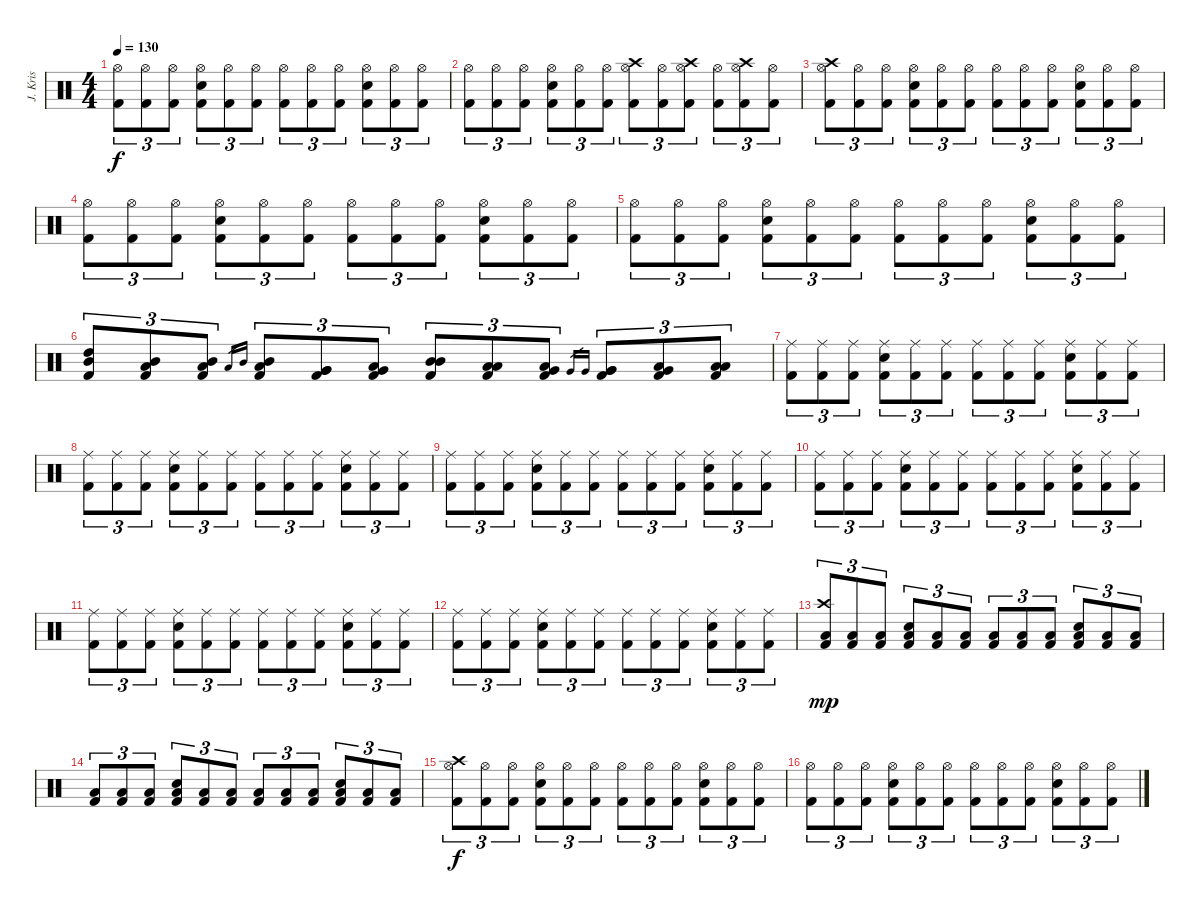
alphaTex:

\track ("   J. Kristensson (drums)" "   J. Kris") {instrument percussion}
\staff {score}
\articulation defaults
\ts (4 4)
\tempo 130
\clef neutral
\ks c
("Hi-Hat (open)" "Kick (hit) 2").8{tu (3 2) dy f} ("Hi-Hat (open)" "Kick (hit) 2").8{tu (3 2)} ("Hi-Hat (open)" "Kick (hit) 2").8{tu (3 2)} ("Hi-Hat (open)" "Electric Snare (hit)" "Kick (hit) 2").8{tu (3 2)} ("Hi-Hat (open)" "Kick (hit) 2").8{tu (3 2)} ("Hi-Hat (open)" "Kick (hit) 2").8{tu (3 2)} ("Hi-Hat (open)" "Kick (hit) 2").8{tu (3 2)} ("Hi-Hat (open)" "Kick (hit) 2").8{tu (3 2)} ("Hi-Hat (open)" "Kick (hit) 2").8{tu (3 2)} ("Hi-Hat (open)" "Electric Snare (hit)" "Kick (hit) 2").8{tu (3 2)} ("Hi-Hat (open)" "Kick (hit) 2").8{tu (3 2)} ("Hi-Hat (open)" "Kick (hit) 2").8{tu (3 2)} |
("Hi-Hat (open)" "Kick (hit) 2").8{tu (3 2)} ("Hi-Hat (open)" "Kick (hit) 2").8{tu (3 2)} ("Hi-Hat (open)" "Kick (hit) 2").8{tu (3 2)} ("Hi-Hat (open)" "Electric Snare (hit)" "Kick (hit) 2").8{tu (3 2)} ("Hi-Hat (open)" "Kick (hit) 2").8{tu (3 2)} ("Hi-Hat (open)" "Kick (hit) 2").8{tu (3 2)} ("Hi-Hat (open)" "Crash high (hit)" "Kick (hit) 2").8{tu (3 2)} ("Hi-Hat (open)" "Kick (hit) 2").8{tu (3 2)} ("Hi-Hat (open)" "Crash high (hit)" "Kick (hit) 2").8{tu (3 2)} ("Hi-Hat (open)" "Kick (hit) 2").8{tu (3 2)} ("Hi-Hat (open)" "Crash high (hit)" "Kick (hit) 2").8{tu (3 2)} ("Hi-Hat (open)" "Kick (hit) 2").8{tu (3 2)} |
("Hi-Hat (open)" "Crash high (hit)" "Kick (hit) 2").8{tu (3 2)} ("Hi-Hat (open)" "Kick (hit) 2").8{tu (3 2)} ("Hi-Hat (open)" "Kick (hit) 2").8{tu (3 2)} ("Hi-Hat (open)" "Electric Snare (hit)" "Kick (hit) 2").8{tu (3 2)} ("Hi-Hat (open)" "Kick (hit) 2").8{tu (3 2)} ("Hi-Hat (open)" "Kick (hit) 2").8{tu (3 2)} ("Hi-Hat (open)" "Kick (hit) 2").8{tu (3 2)} ("Hi-Hat (open)" "Kick (hit) 2").8{tu (3 2)} ("Hi-Hat (open)" "Kick (hit) 2").8{tu (3 2)} ("Hi-Hat (open)" "Electric Snare (hit)" "Kick (hit) 2").8{tu (3 2)} ("Hi-Hat (open)" "Kick (hit) 2").8{tu (3 2)} ("Hi-Hat (open)" "Kick (hit) 2").8{tu (3 2)} |
("Hi-Hat (open)" "Kick (hit) 2").8{tu (3 2)} ("Hi-Hat (open)" "Kick (hit) 2").8{tu (3 2)} ("Hi-Hat (open)" "Kick (hit) 2").8{tu (3 2)} ("Hi-Hat (open)" "Electric Snare (hit)" "Kick (hit) 2").8{tu (3 2)} ("Hi-Hat (open)" "Kick (hit) 2").8{tu (3 2)} ("Hi-Hat (open)" "Kick (hit) 2").8{tu (3 2)} ("Hi-Hat (open)" "Kick (hit) 2").8{tu (3 2)} ("Hi-Hat (open)" "Kick (hit) 2").8{tu (3 2)} ("Hi-Hat (open)" "Kick (hit) 2").8{tu (3 2)} ("Hi-Hat (open)" "Electric Snare (hit)" "Kick (hit) 2").8{tu (3 2)} ("Hi-Hat (open)" "Kick (hit) 2").8{tu (3 2)} ("Hi-Hat (open)" "Kick (hit) 2").8{tu (3 2)} |
("Hi-Hat (open)" "Kick (hit) 2").8{tu (3 2)} ("Hi-Hat (open)" "Kick (hit) 2").8{tu (3 2)} ("Hi-Hat (open)" "Kick (hit) 2").8{tu (3 2)} ("Hi-Hat (open)" "Electric Snare (hit)" "Kick (hit) 2").8{tu (3 2)} ("Hi-Hat (open)" "Kick (hit) 2").8{tu (3 2)} ("Hi-Hat (open)" "Kick (hit) 2").8{tu (3 2)} ("Hi-Hat (open)" "Kick (hit) 2").8{tu (3 2)} ("Hi-Hat (open)" "Kick (hit) 2").8{tu (3 2)} ("Hi-Hat (open)" "Kick (hit) 2").8{tu (3 2)} ("Hi-Hat (open)" "Electric Snare (hit)" "Kick (hit) 2").8{tu (3 2)} ("Hi-Hat (open)" "Kick (hit) 2").8{tu (3 2)} ("Hi-Hat (open)" "Kick (hit) 2").8{tu (3 2)} |
("High Tom (hit)" "Mid Tom (hit)" "Kick (hit) 2").8{tu (3 2)} ("Mid Tom (hit)" "Low Tom (hit)" "Kick (hit) 2").8{tu (3 2)} ("Low Tom (hit)" "Mid Tom (hit)" "Kick (hit) 2").8{tu (3 2)} "Low Tom (hit)".16{gr} "Mid Tom (hit)".16{gr} ("Low Tom (hit)" "Mid Tom (hit)" "Kick (hit) 2").8{tu (3 2)} ("Very Low Tom (hit)" "Very Low Tom (hit)" "Kick (hit) 2").8{tu (3 2)} ("Low Floor Tom (hit)" "Very Low Tom (hit)" "Kick (hit) 2").8{tu (3 2)} ("Mid Tom (hit)" "Mid Tom (hit)" "Kick (hit) 2").8{tu (3 2)} ("Low Tom (hit)" "Low Tom (hit)" "Kick (hit) 2").8{tu (3 2)} ("Very Low Tom (hit)" "Low Tom (hit)" "Kick (hit) 2").8{tu (3 2)} "Very Low Tom (hit)".16{gr} "Very Low Tom (hit)".16{gr} ("Very Low Tom (hit)" "Very Low Tom (hit)" "Kick (hit) 2").8{tu (3 2)} ("Low Floor Tom (hit)" "Very Low Tom (hit)" "Kick (hit) 2").8{tu (3 2)} ("Low Floor Tom (hit)" "Low Floor Tom (hit)" "Kick (hit) 2").8{tu (3 2)} |
("Ride (middle)" "Kick (hit) 2").8{tu (3 2)} ("Ride (middle)" "Kick (hit) 2").8{tu (3 2)} ("Ride (middle)" "Kick (hit) 2").8{tu (3 2)} ("Ride (middle)" "Electric Snare (hit)" "Kick (hit) 2").8{tu (3 2)} ("Ride (middle)" "Kick (hit) 2").8{tu (3 2)} ("Ride (middle)" "Kick (hit) 2").8{tu (3 2)} ("Ride (middle)" "Kick (hit) 2").8{tu (3 2)} ("Ride (middle)" "Kick (hit) 2").8{tu (3 2)} ("Ride (middle)" "Kick (hit) 2").8{tu (3 2)} ("Ride (middle)" "Electric Snare (hit)" "Kick (hit) 2").8{tu (3 2)} ("Ride (middle)" "Kick (hit) 2").8{tu (3 2)} ("Ride (middle)" "Kick (hit) 2").8{tu (3 2)} |
("Ride (middle)" "Kick (hit) 2").8{tu (3 2)} ("Ride (middle)" "Kick (hit) 2").8{tu (3 2)} ("Ride (middle)" "Kick (hit) 2").8{tu (3 2)} ("Ride (middle)" "Electric Snare (hit)" "Kick (hit) 2").8{tu (3 2)} ("Ride (middle)" "Kick (hit) 2").8{tu (3 2)} ("Ride (middle)" "Kick (hit) 2").8{tu (3 2)} ("Ride (middle)" "Kick (hit) 2").8{tu (3 2)} ("Ride (middle)" "Kick (hit) 2").8{tu (3 2)} ("Ride (middle)" "Kick (hit) 2").8{tu (3 2)} ("Ride (middle)" "Electric Snare (hit)" "Kick (hit) 2").8{tu (3 2)} ("Ride (middle)" "Kick (hit) 2").8{tu (3 2)} ("Ride (middle)" "Kick (hit) 2").8{tu (3 2)} |
("Ride (middle)" "Kick (hit) 2").8{tu (3 2)} ("Ride (middle)" "Kick (hit) 2").8{tu (3 2)} ("Ride (middle)" "Kick (hit) 2").8{tu (3 2)} ("Ride (middle)" "Electric Snare (hit)" "Kick (hit) 2").8{tu (3 2)} ("Ride (middle)" "Kick (hit) 2").8{tu (3 2)} ("Ride (middle)" "Kick (hit) 2").8{tu (3 2)} ("Ride (middle)" "Kick (hit) 2").8{tu (3 2)} ("Ride (middle)" "Kick (hit) 2").8{tu (3 2)} ("Ride (middle)" "Kick (hit) 2").8{tu (3 2)} ("Ride (middle)" "Electric Snare (hit)" "Kick (hit) 2").8{tu (3 2)} ("Ride (middle)" "Kick (hit) 2").8{tu (3 2)} ("Ride (middle)" "Kick (hit) 2").8{tu (3 2)} |
("Ride (middle)" "Kick (hit) 2").8{tu (3 2)} ("Ride (middle)" "Kick (hit) 2").8{tu (3 2)} ("Ride (middle)" "Kick (hit) 2").8{tu (3 2)} ("Ride (middle)" "Electric Snare (hit)" "Kick (hit) 2").8{tu (3 2)} ("Ride (middle)" "Kick (hit) 2").8{tu (3 2)} ("Ride (middle)" "Kick (hit) 2").8{tu (3 2)} ("Ride (middle)" "Kick (hit) 2").8{tu (3 2)} ("Ride (middle)" "Kick (hit) 2").8{tu (3 2)} ("Ride (middle)" "Kick (hit) 2").8{tu (3 2)} ("Ride (middle)" "Electric Snare (hit)" "Kick (hit) 2").8{tu (3 2)} ("Ride (middle)" "Kick (hit) 2").8{tu (3 2)} ("Ride (middle)" "Kick (hit) 2").8{tu (3 2)} |
("Ride (middle)" "Kick (hit) 2").8{tu (3 2)} ("Ride (middle)" "Kick (hit) 2").8{tu (3 2)} ("Ride (middle)" "Kick (hit) 2").8{tu (3 2)} ("Ride (middle)" "Electric Snare (hit)" "Kick (hit) 2").8{tu (3 2)} ("Ride (middle)" "Kick (hit) 2").8{tu (3 2)} ("Ride (middle)" "Kick (hit) 2").8{tu (3 2)} ("Ride (middle)" "Kick (hit) 2").8{tu (3 2)} ("Ride (middle)" "Kick (hit) 2").8{tu (3 2)} ("Ride (middle)" "Kick (hit) 2").8{tu (3 2)} ("Ride (middle)" "Electric Snare (hit)" "Kick (hit) 2").8{tu (3 2)} ("Ride (middle)" "Kick (hit) 2").8{tu (3 2)} ("Ride (middle)" "Kick (hit) 2").8{tu (3 2)} |
("Ride (middle)" "Kick (hit) 2").8{tu (3 2)} ("Ride (middle)" "Kick (hit) 2").8{tu (3 2)} ("Ride (middle)" "Kick (hit) 2").8{tu (3 2)} ("Ride (middle)" "Electric Snare (hit)" "Kick (hit) 2").8{tu (3 2)} ("Ride (middle)" "Kick (hit) 2").8{tu (3 2)} ("Ride (middle)" "Kick (hit) 2").8{tu (3 2)} ("Ride (middle)" "Kick (hit) 2").8{tu (3 2)} ("Ride (middle)" "Kick (hit) 2").8{tu (3 2)} ("Ride (middle)" "Kick (hit) 2").8{tu (3 2)} ("Ride (middle)" "Electric Snare (hit)" "Kick (hit) 2").8{tu (3 2)} ("Ride (middle)" "Kick (hit) 2").8{tu (3 2)} ("Ride (middle)" "Kick (hit) 2").8{tu (3 2)} |
("Crash high (hit)" "Low Tom (hit)" "Kick (hit) 2").8{tu (3 2) dy mp} ("Low Tom (hit)" "Kick (hit) 2").8{tu (3 2)} ("Low Tom (hit)" "Kick (hit) 2").8{tu (3 2)} ("Low Tom (hit)" "Electric Snare (hit)" "Kick (hit) 2").8{tu (3 2)} ("Low Tom (hit)" "Kick (hit) 2").8{tu (3 2)} ("Low Tom (hit)" "Kick (hit) 2").8{tu (3 2)} ("Low Tom (hit)" "Kick (hit) 2").8{tu (3 2)} ("Low Tom (hit)" "Kick (hit) 2").8{tu (3 2)} ("Low Tom (hit)" "Kick (hit) 2").8{tu (3 2)} ("Low Tom (hit)" "Electric Snare (hit)" "Kick (hit) 2").8{tu (3 2)} ("Low Tom (hit)" "Kick (hit) 2").8{tu (3 2)} ("Low Tom (hit)" "Kick (hit) 2").8{tu (3 2)} |
("Low Tom (hit)" "Kick (hit) 2").8{tu (3 2)} ("Low Tom (hit)" "Kick (hit) 2").8{tu (3 2)} ("Low Tom (hit)" "Kick (hit) 2").8{tu (3 2)} ("Low Tom (hit)" "Electric Snare (hit)" "Kick (hit) 2").8{tu (3 2)} ("Low Tom (hit)" "Kick (hit) 2").8{tu (3 2)} ("Low Tom (hit)" "Kick (hit) 2").8{tu (3 2)} ("Low Tom (hit)" "Kick (hit) 2").8{tu (3 2)} ("Low Tom (hit)" "Kick (hit) 2").8{tu (3 2)} ("Low Tom (hit)" "Kick (hit) 2").8{tu (3 2)} ("Low Tom (hit)" "Electric Snare (hit)" "Kick (hit) 2").8{tu (3 2)} ("Low Tom (hit)" "Kick (hit) 2").8{tu (3 2)} ("Low Tom (hit)" "Kick (hit) 2").8{tu (3 2)} |
("Hi-Hat (open)" "Crash high (hit)" "Kick (hit) 2").8{tu (3 2) dy f} ("Hi-Hat (open)" "Kick (hit) 2").8{tu (3 2)} ("Hi-Hat (open)" "Kick (hit) 2").8{tu (3 2)} ("Hi-Hat (open)" "Electric Snare (hit)" "Kick (hit) 2").8{tu (3 2)} ("Hi-Hat (open)" "Kick (hit) 2").8{tu (3 2)} ("Hi-Hat (open)" "Kick (hit) 2").8{tu (3 2)} ("Hi-Hat (open)" "Kick (hit) 2").8{tu (3 2)} ("Hi-Hat (open)" "Kick (hit) 2").8{tu (3 2)} ("Hi-Hat (open)" "Kick (hit) 2").8{tu (3 2)} ("Hi-Hat (open)" "Electric Snare (hit)" "Kick (hit) 2").8{tu (3 2)} ("Hi-Hat (open)" "Kick (hit) 2").8{tu (3 2)} ("Hi-Hat (open)" "Kick (hit) 2").8{tu (3 2)} |
("Hi-Hat (open)" "Kick (hit) 2").8{tu (3 2)} ("Hi-Hat (open)" "Kick (hit) 2").8{tu (3 2)} ("Hi-Hat (open)" "Kick (hit) 2").8{tu (3 2)} ("Hi-Hat (open)" "Electric Snare (hit)" "Kick (hit) 2").8{tu (3 2)} ("Hi-Hat (open)" "Kick (hit) 2").8{tu (3 2)} ("Hi-Hat (open)" "Kick (hit) 2").8{tu (3 2)} ("Hi-Hat (open)" "Kick (hit) 2").8{tu (3 2)} ("Hi-Hat (open)" "Kick (hit) 2").8{tu (3 2)} ("Hi-Hat (open)" "Kick (hit) 2").8{tu (3 2)} ("Hi-Hat (open)" "Electric Snare (hit)" "Kick (hit) 2").8{tu (3 2)} ("Hi-Hat (open)" "Kick (hit) 2").8{tu (3 2)} ("Hi-Hat (open)" "Kick (hit) 2").8{tu (3 2)}
